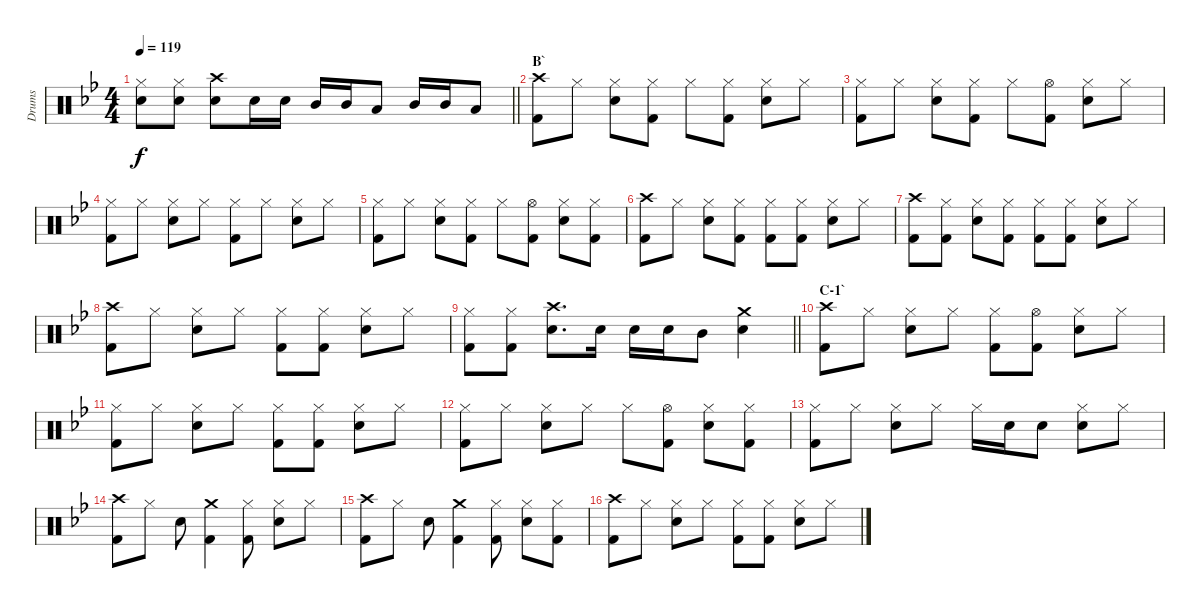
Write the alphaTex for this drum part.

\track ("Drums" "Drums") {instrument percussion}
\staff {score}
\articulation defaults
\ts (4 4)
\tempo 119
\clef neutral
\barLineRight lightlight
\ks bb
("Hi-Hat (closed)" "Snare (hit) 2").8{dy f} ("Hi-Hat (closed)" "Snare (hit) 2").8 ("Crash high (hit)" "Snare (hit) 2").8 "Snare (hit) 2".16 "Snare (hit) 2".16 "Mid Tom (hit)".16 "Mid Tom (hit)".16 "Low Tom (hit)".8 "Mid Tom (hit)".16 "Mid Tom (hit)".16 "Low Tom (hit)".8 |
\section ("" "B`")
("Crash high (hit)" "Kick (hit) 2").8 "Hi-Hat (closed)".8 ("Hi-Hat (closed)" "Snare (hit) 2").8 ("Hi-Hat (closed)" "Kick (hit) 2").8 "Hi-Hat (closed)".8 ("Hi-Hat (closed)" "Kick (hit) 2").8 ("Hi-Hat (closed)" "Snare (hit) 2").8 "Hi-Hat (closed)".8 |
("Hi-Hat (closed)" "Kick (hit) 2").8 "Hi-Hat (closed)".8 ("Hi-Hat (closed)" "Snare (hit) 2").8 ("Hi-Hat (closed)" "Kick (hit) 2").8 "Hi-Hat (closed)".8 ("Hi-Hat (open)" "Kick (hit) 2").8 ("Hi-Hat (closed)" "Snare (hit) 2").8 "Hi-Hat (closed)".8 |
("Hi-Hat (closed)" "Kick (hit) 2").8 "Hi-Hat (closed)".8 ("Hi-Hat (closed)" "Snare (hit) 2").8 "Hi-Hat (closed)".8 ("Hi-Hat (closed)" "Kick (hit) 2").8 "Hi-Hat (closed)".8 ("Hi-Hat (closed)" "Snare (hit) 2").8 "Hi-Hat (closed)".8 |
("Hi-Hat (closed)" "Kick (hit) 2").8 "Hi-Hat (closed)".8 ("Hi-Hat (closed)" "Snare (hit) 2").8 ("Hi-Hat (closed)" "Kick (hit) 2").8 "Hi-Hat (closed)".8 ("Hi-Hat (open)" "Kick (hit) 2").8 ("Hi-Hat (closed)" "Snare (hit) 2").8 ("Hi-Hat (closed)" "Kick (hit) 2").8 |
("Crash high (hit)" "Kick (hit) 2").8 "Hi-Hat (closed)".8 ("Hi-Hat (closed)" "Snare (hit) 2").8 ("Hi-Hat (closed)" "Kick (hit) 2").8 ("Hi-Hat (closed)" "Kick (hit) 2").8 ("Hi-Hat (closed)" "Kick (hit) 2").8 ("Hi-Hat (closed)" "Snare (hit) 2").8 "Hi-Hat (closed)".8 |
("Crash high (hit)" "Kick (hit) 2").8 ("Hi-Hat (closed)" "Kick (hit) 2").8 ("Hi-Hat (closed)" "Snare (hit) 2").8 ("Hi-Hat (closed)" "Kick (hit) 2").8 ("Hi-Hat (closed)" "Kick (hit) 2").8 ("Hi-Hat (closed)" "Kick (hit) 2").8 ("Hi-Hat (closed)" "Snare (hit) 2").8 "Hi-Hat (closed)".8 |
("Crash high (hit)" "Kick (hit) 2").8 "Hi-Hat (closed)".8 ("Hi-Hat (closed)" "Snare (hit) 2").8 "Hi-Hat (closed)".8 ("Hi-Hat (closed)" "Kick (hit) 2").8 ("Hi-Hat (closed)" "Kick (hit) 2").8 ("Hi-Hat (closed)" "Snare (hit) 2").8 "Hi-Hat (closed)".8 |
\barLineRight lightlight
("Hi-Hat (closed)" "Kick (hit) 2").8 ("Hi-Hat (closed)" "Kick (hit) 2").8 ("Crash high (hit)" "Snare (hit) 2").8{d} "Snare (hit) 2".16 "Snare (hit) 2".16 "Snare (hit) 2".16 "Mid Tom (hit)".8 ("Crash medium (hit)" "Snare (hit) 2").4 |
\section ("" "C-1`")
("Crash high (hit)" "Kick (hit) 2").8 "Hi-Hat (closed)".8 ("Hi-Hat (closed)" "Snare (hit) 2").8 "Hi-Hat (closed)".8 ("Hi-Hat (closed)" "Kick (hit) 2").8 ("Hi-Hat (open)" "Kick (hit) 2").8 ("Hi-Hat (closed)" "Snare (hit) 2").8 "Hi-Hat (closed)".8 |
("Hi-Hat (closed)" "Kick (hit) 2").8 "Hi-Hat (closed)".8 ("Hi-Hat (closed)" "Snare (hit) 2").8 "Hi-Hat (closed)".8 ("Hi-Hat (closed)" "Kick (hit) 2").8 ("Hi-Hat (closed)" "Kick (hit) 2").8 ("Hi-Hat (closed)" "Snare (hit) 2").8 "Hi-Hat (closed)".8 |
("Hi-Hat (closed)" "Kick (hit) 2").8 "Hi-Hat (closed)".8 ("Hi-Hat (closed)" "Snare (hit) 2").8 "Hi-Hat (closed)".8 "Hi-Hat (closed)".8 ("Hi-Hat (open)" "Kick (hit) 2").8 ("Hi-Hat (closed)" "Snare (hit) 2").8 ("Hi-Hat (closed)" "Kick (hit) 2").8 |
("Hi-Hat (closed)" "Kick (hit) 2").8 "Hi-Hat (closed)".8 ("Hi-Hat (closed)" "Snare (hit) 2").8 "Hi-Hat (closed)".8 "Hi-Hat (closed)".16 "Snare (hit) 2".16 "Snare (hit) 2".8 ("Hi-Hat (closed)" "Snare (hit) 2").8 "Hi-Hat (closed)".8 |
("Crash high (hit)" "Kick (hit) 2").8 "Hi-Hat (closed)".8 "Snare (hit) 2".8 ("Crash medium (hit)" "Kick (hit) 2").4 ("Hi-Hat (closed)" "Kick (hit) 2").8 ("Hi-Hat (closed)" "Snare (hit) 2").8 "Hi-Hat (closed)".8 |
("Crash high (hit)" "Kick (hit) 2").8 "Hi-Hat (closed)".8 "Snare (hit) 2".8 ("Crash medium (hit)" "Kick (hit) 2").4 ("Hi-Hat (closed)" "Kick (hit) 2").8 ("Hi-Hat (closed)" "Snare (hit) 2").8 ("Hi-Hat (closed)" "Kick (hit) 2").8 |
("Crash high (hit)" "Kick (hit) 2").8 "Hi-Hat (closed)".8 ("Hi-Hat (closed)" "Snare (hit) 2").8 "Hi-Hat (closed)".8 ("Hi-Hat (closed)" "Kick (hit) 2").8 ("Hi-Hat (closed)" "Kick (hit) 2").8 ("Hi-Hat (closed)" "Snare (hit) 2").8 "Hi-Hat (closed)".8
